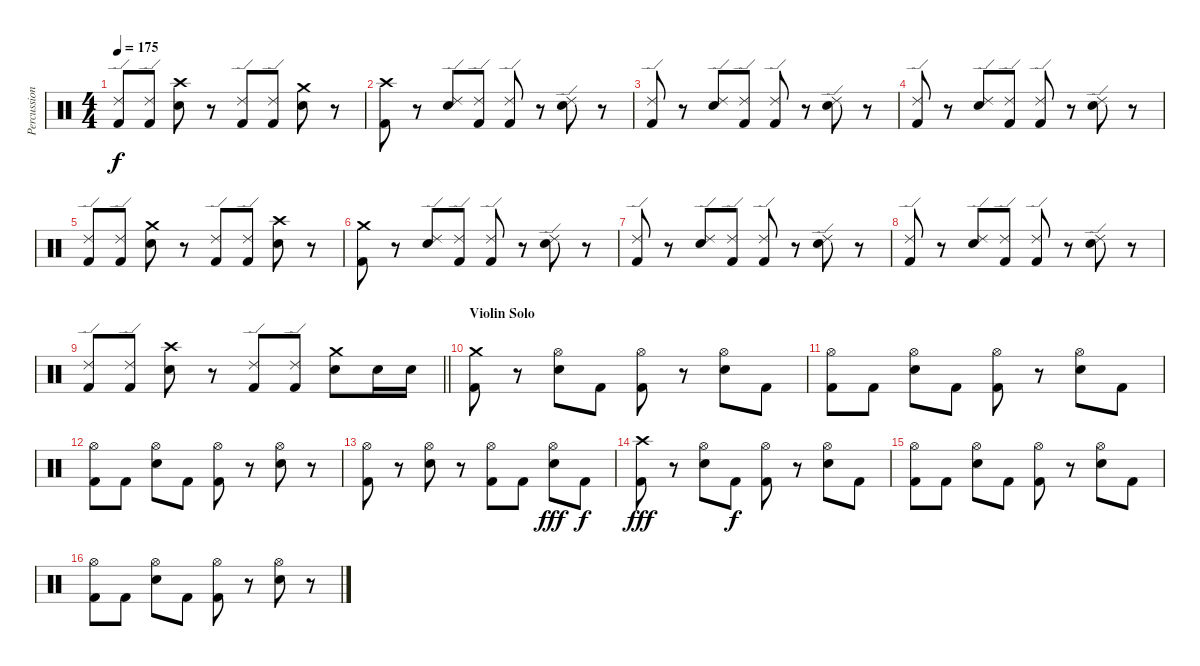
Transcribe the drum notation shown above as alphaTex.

\track ("Percussion" "Percussion") {instrument percussion}
\staff {score}
\articulation defaults
\ts (4 4)
\tempo 175
\clef neutral
\ks c
("Ride (edge) 2" "Kick (hit) 2").8{dy f} ("Ride (edge) 2" "Kick (hit) 2").8 ("Crash high (hit)" "Electric Snare (hit)").8 r.8 ("Ride (edge) 2" "Kick (hit) 2").8 ("Ride (edge) 2" "Kick (hit) 2").8 ("Crash medium (hit)" "Electric Snare (hit)").8 r.8 |
("Crash high (hit)" "Kick (hit) 2").8 r.8 ("Ride (edge) 2" "Electric Snare (hit)").8 ("Ride (edge) 2" "Kick (hit) 2").8 ("Ride (edge) 2" "Kick (hit) 2").8 r.8 ("Ride (edge) 2" "Electric Snare (hit)").8 r.8 |
("Ride (edge) 2" "Kick (hit) 2").8 r.8 ("Ride (edge) 2" "Electric Snare (hit)").8 ("Ride (edge) 2" "Kick (hit) 2").8 ("Ride (edge) 2" "Kick (hit) 2").8 r.8 ("Ride (edge) 2" "Electric Snare (hit)").8 r.8 |
("Ride (edge) 2" "Kick (hit) 2").8 r.8 ("Ride (edge) 2" "Electric Snare (hit)").8 ("Ride (edge) 2" "Kick (hit) 2").8 ("Ride (edge) 2" "Kick (hit) 2").8 r.8 ("Ride (edge) 2" "Electric Snare (hit)").8 r.8 |
("Ride (edge) 2" "Kick (hit) 2").8 ("Ride (edge) 2" "Kick (hit) 2").8 ("Crash medium (hit)" "Electric Snare (hit)").8 r.8 ("Ride (edge) 2" "Kick (hit) 2").8 ("Ride (edge) 2" "Kick (hit) 2").8 ("Crash high (hit)" "Electric Snare (hit)").8 r.8 |
("Crash medium (hit)" "Kick (hit) 2").8 r.8 ("Ride (edge) 2" "Electric Snare (hit)").8 ("Ride (edge) 2" "Kick (hit) 2").8 ("Ride (edge) 2" "Kick (hit) 2").8 r.8 ("Ride (edge) 2" "Electric Snare (hit)").8 r.8 |
("Ride (edge) 2" "Kick (hit) 2").8 r.8 ("Ride (edge) 2" "Electric Snare (hit)").8 ("Ride (edge) 2" "Kick (hit) 2").8 ("Ride (edge) 2" "Kick (hit) 2").8 r.8 ("Ride (edge) 2" "Electric Snare (hit)").8 r.8 |
("Ride (edge) 2" "Kick (hit) 2").8 r.8 ("Ride (edge) 2" "Electric Snare (hit)").8 ("Ride (edge) 2" "Kick (hit) 2").8 ("Ride (edge) 2" "Kick (hit) 2").8 r.8 ("Ride (edge) 2" "Electric Snare (hit)").8 r.8 |
\barLineRight lightlight
("Ride (edge) 2" "Kick (hit) 2").8 ("Ride (edge) 2" "Kick (hit) 2").8 ("Crash high (hit)" "Electric Snare (hit)").8 r.8 ("Ride (edge) 2" "Kick (hit) 2").8 ("Ride (edge) 2" "Kick (hit) 2").8 ("Crash medium (hit)" "Electric Snare (hit)").8 "Electric Snare (hit)".16 "Electric Snare (hit)".16 |
\section ("" "Violin Solo")
("Crash medium (hit)" "Kick (hit) 2").8 r.8 ("Hi-Hat (open)" "Electric Snare (hit)").8 "Kick (hit) 2".8 ("Hi-Hat (open)" "Kick (hit) 2").8 r.8 ("Hi-Hat (open)" "Electric Snare (hit)").8 "Kick (hit) 2".8 |
("Hi-Hat (open)" "Kick (hit) 2").8 "Kick (hit) 2".8 ("Hi-Hat (open)" "Electric Snare (hit)").8 "Kick (hit) 2".8 ("Hi-Hat (open)" "Kick (hit) 2").8 r.8 ("Hi-Hat (open)" "Electric Snare (hit)").8 "Kick (hit) 2".8 |
("Hi-Hat (open)" "Kick (hit) 2").8 "Kick (hit) 2".8 ("Hi-Hat (open)" "Electric Snare (hit)").8 "Kick (hit) 2".8 ("Hi-Hat (open)" "Kick (hit) 2").8 r.8 ("Hi-Hat (open)" "Electric Snare (hit)").8 r.8 |
("Hi-Hat (open)" "Kick (hit) 2").8 r.8 ("Hi-Hat (open)" "Electric Snare (hit)").8 r.8 ("Hi-Hat (open)" "Kick (hit) 2").8 "Kick (hit) 2".8 ("Hi-Hat (open)" "Electric Snare (hit)").8{dy fff} "Kick (hit) 2".8{dy f} |
("Crash high (hit)" "Kick (hit) 2").8{dy fff} r.8 ("Hi-Hat (open)" "Electric Snare (hit)").8 "Kick (hit) 2".8{dy f} ("Hi-Hat (open)" "Kick (hit) 2").8 r.8 ("Hi-Hat (open)" "Electric Snare (hit)").8 "Kick (hit) 2".8 |
("Hi-Hat (open)" "Kick (hit) 2").8 "Kick (hit) 2".8 ("Hi-Hat (open)" "Electric Snare (hit)").8 "Kick (hit) 2".8 ("Hi-Hat (open)" "Kick (hit) 2").8 r.8 ("Hi-Hat (open)" "Electric Snare (hit)").8 "Kick (hit) 2".8 |
("Hi-Hat (open)" "Kick (hit) 2").8 "Kick (hit) 2".8 ("Hi-Hat (open)" "Electric Snare (hit)").8 "Kick (hit) 2".8 ("Hi-Hat (open)" "Kick (hit) 2").8 r.8 ("Hi-Hat (open)" "Electric Snare (hit)").8 r.8
